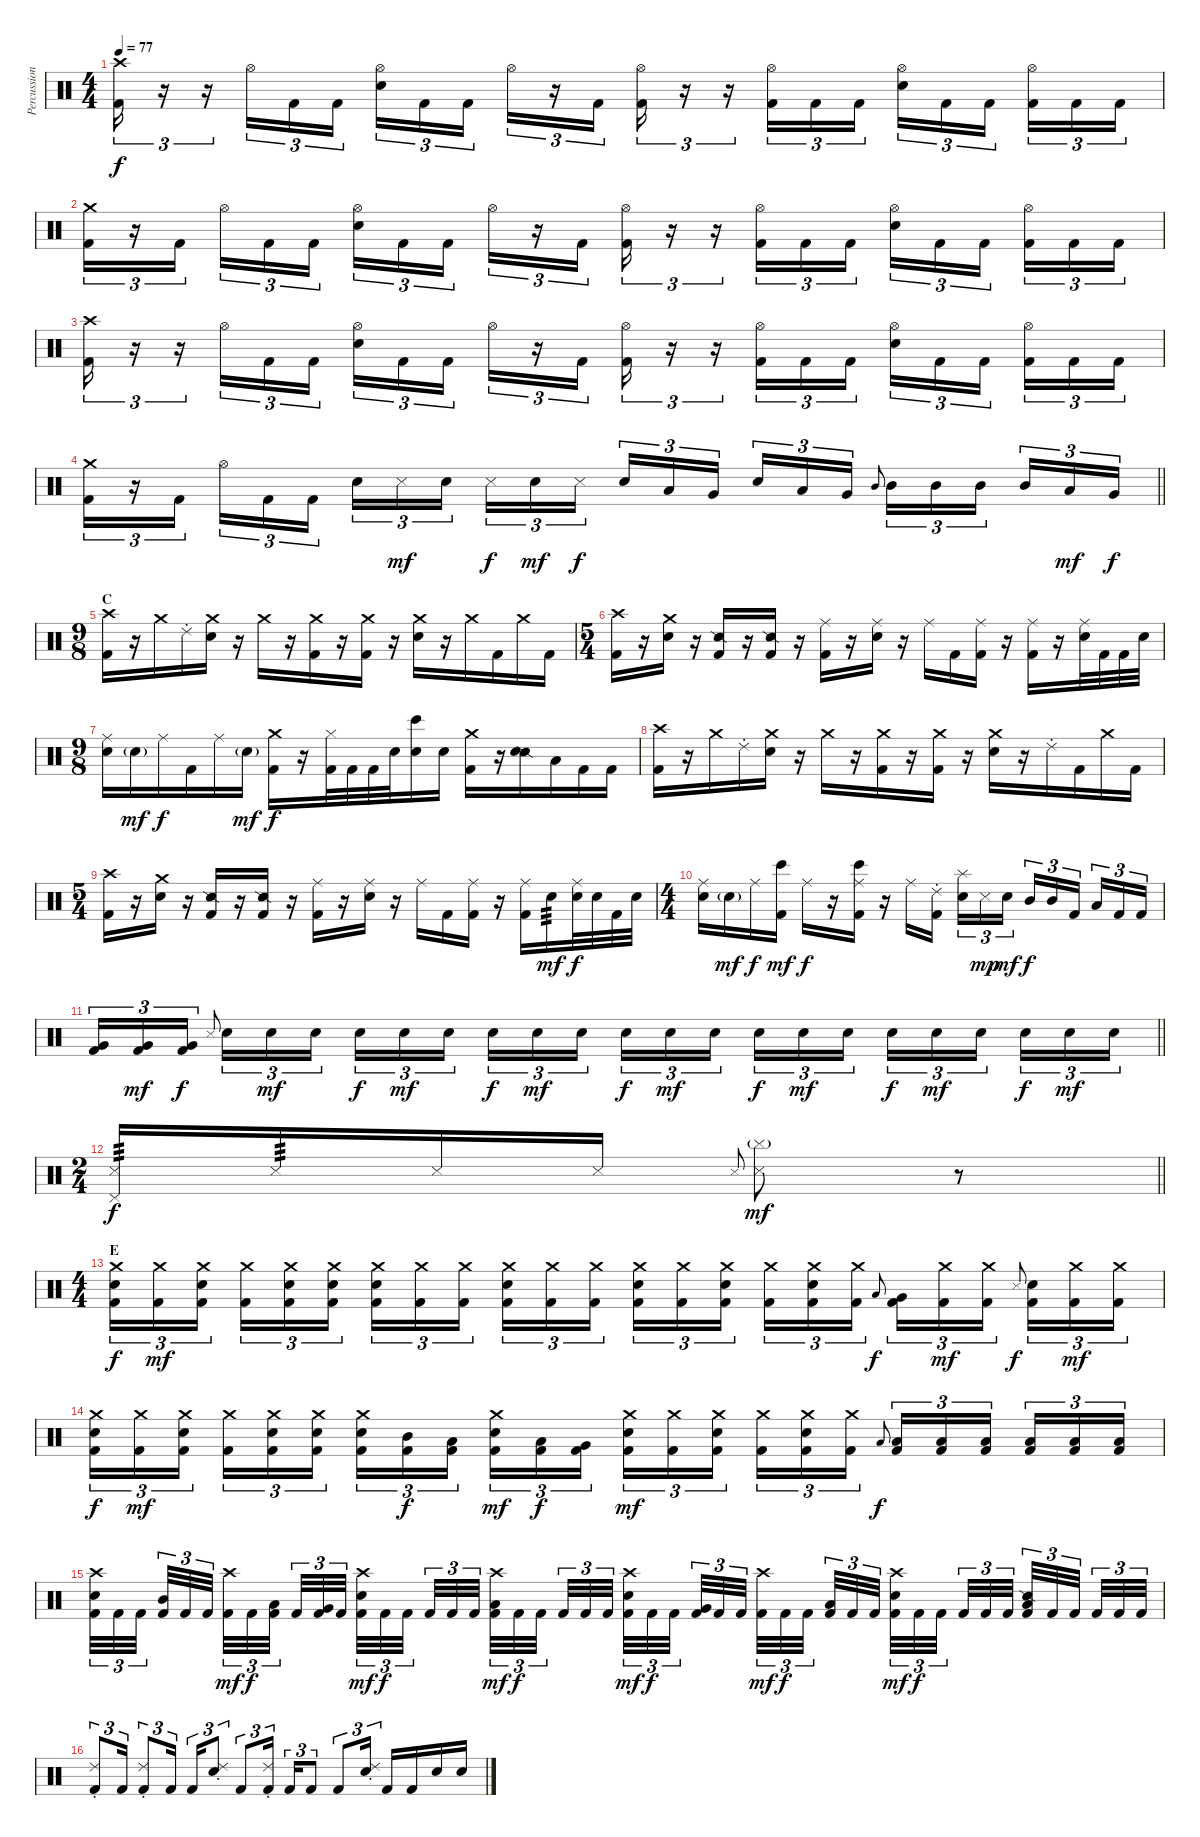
\track ("Percussion" "Percussion") {instrument percussion}
\staff {score}
\articulation defaults
\ts (4 4)
\tempo 77
\clef neutral
\ks c
("Crash high (hit)" "Kick (hit) 2").16{tu (3 2) dy f} r.16{tu (3 2)} r.16{tu (3 2)} "Hi-Hat (open)".16{tu (3 2)} "Kick (hit) 2".16{tu (3 2)} "Kick (hit) 2".16{tu (3 2)} ("Hi-Hat (open)" "Snare (hit) 2").16{tu (3 2)} "Kick (hit) 2".16{tu (3 2)} "Kick (hit) 2".16{tu (3 2) beam splitsecondary} "Hi-Hat (open)".16{tu (3 2)} r.16{tu (3 2)} "Kick (hit) 2".16{tu (3 2)} ("Hi-Hat (open)" "Kick (hit) 2").16{tu (3 2)} r.16{tu (3 2)} r.16{tu (3 2)} ("Hi-Hat (open)" "Kick (hit) 2").16{tu (3 2)} "Kick (hit) 2".16{tu (3 2)} "Kick (hit) 2".16{tu (3 2)} ("Hi-Hat (open)" "Snare (hit) 2").16{tu (3 2)} "Kick (hit) 2".16{tu (3 2)} "Kick (hit) 2".16{tu (3 2) beam splitsecondary} ("Hi-Hat (open)" "Kick (hit) 2").16{tu (3 2)} "Kick (hit) 2".16{tu (3 2)} "Kick (hit) 2".16{tu (3 2)} |
("Crash medium (hit)" "Kick (hit) 2").16{tu (3 2)} r.16{tu (3 2)} "Kick (hit) 2".16{tu (3 2) beam splitsecondary} "Hi-Hat (open)".16{tu (3 2)} "Kick (hit) 2".16{tu (3 2)} "Kick (hit) 2".16{tu (3 2)} ("Hi-Hat (open)" "Snare (hit) 2").16{tu (3 2)} "Kick (hit) 2".16{tu (3 2)} "Kick (hit) 2".16{tu (3 2) beam splitsecondary} "Hi-Hat (open)".16{tu (3 2)} r.16{tu (3 2)} "Kick (hit) 2".16{tu (3 2)} ("Hi-Hat (open)" "Kick (hit) 2").16{tu (3 2)} r.16{tu (3 2)} r.16{tu (3 2)} ("Hi-Hat (open)" "Kick (hit) 2").16{tu (3 2)} "Kick (hit) 2".16{tu (3 2)} "Kick (hit) 2".16{tu (3 2)} ("Hi-Hat (open)" "Snare (hit) 2").16{tu (3 2)} "Kick (hit) 2".16{tu (3 2)} "Kick (hit) 2".16{tu (3 2) beam splitsecondary} ("Hi-Hat (open)" "Kick (hit) 2").16{tu (3 2)} "Kick (hit) 2".16{tu (3 2)} "Kick (hit) 2".16{tu (3 2)} |
("Crash high (hit)" "Kick (hit) 2").16{tu (3 2)} r.16{tu (3 2)} r.16{tu (3 2)} "Hi-Hat (open)".16{tu (3 2)} "Kick (hit) 2".16{tu (3 2)} "Kick (hit) 2".16{tu (3 2)} ("Hi-Hat (open)" "Snare (hit) 2").16{tu (3 2)} "Kick (hit) 2".16{tu (3 2)} "Kick (hit) 2".16{tu (3 2) beam splitsecondary} "Hi-Hat (open)".16{tu (3 2)} r.16{tu (3 2)} "Kick (hit) 2".16{tu (3 2)} ("Hi-Hat (open)" "Kick (hit) 2").16{tu (3 2)} r.16{tu (3 2)} r.16{tu (3 2)} ("Hi-Hat (open)" "Kick (hit) 2").16{tu (3 2)} "Kick (hit) 2".16{tu (3 2)} "Kick (hit) 2".16{tu (3 2)} ("Hi-Hat (open)" "Snare (hit) 2").16{tu (3 2)} "Kick (hit) 2".16{tu (3 2)} "Kick (hit) 2".16{tu (3 2) beam splitsecondary} ("Hi-Hat (open)" "Kick (hit) 2").16{tu (3 2)} "Kick (hit) 2".16{tu (3 2)} "Kick (hit) 2".16{tu (3 2)} |
\barLineRight lightlight
("Crash medium (hit)" "Kick (hit) 2").16{tu (3 2)} r.16{tu (3 2)} "Kick (hit) 2".16{tu (3 2) beam splitsecondary} "Hi-Hat (open)".16{tu (3 2)} "Kick (hit) 2".16{tu (3 2)} "Kick (hit) 2".16{tu (3 2)} "Snare (hit) 2".16{tu (3 2)} "Metronome (hit)".16{tu (3 2) dy mf} "Snare (hit) 2".16{tu (3 2) beam splitsecondary} "Metronome (hit)".16{tu (3 2) dy f} "Snare (hit) 2".16{tu (3 2) dy mf} "Metronome (hit)".16{tu (3 2) dy f} "Snare (hit) 2".16{tu (3 2)} "Low Tom (hit)".16{tu (3 2)} "Very Low Tom (hit)".16{tu (3 2) beam splitsecondary} "Snare (hit) 2".16{tu (3 2)} "Low Tom (hit)".16{tu (3 2)} "Very Low Tom (hit)".16{tu (3 2)} "Mid Tom (hit)".8{gr onbeat} "Mid Tom (hit)".16{tu (3 2)} "Mid Tom (hit)".16{tu (3 2)} "Mid Tom (hit)".16{tu (3 2) beam splitsecondary} "Mid Tom (hit)".16{tu (3 2)} "Low Tom (hit)".16{tu (3 2) dy mf} "Very Low Tom (hit)".16{tu (3 2) dy f} |
\ts (9 8)
\section ("" "C")
("Crash high (hit)" "Kick (hit) 2").16 r.16 "Crash medium (hit)".16 "Ride (choke) 2".16 ("Crash medium (hit)" "Snare (hit) 2").16 r.16 "Crash medium (hit)".16 r.16 ("Crash medium (hit)" "Kick (hit) 2").16 r.16 ("Crash medium (hit)" "Kick (hit) 2").16 r.16 ("Crash medium (hit)" "Snare (hit) 2").16 r.16 "Crash medium (hit)".16 "Kick (hit) 2".16 "Crash medium (hit)".16 "Kick (hit) 2".16 |
\ts (5 4)
("Crash high (hit)" "Kick (hit) 2").16 r.16 ("Crash medium (hit)" "Snare (hit) 2").16 r.16 ("Snare (side stick) 2" "Kick (hit) 2").16 r.16 ("Snare (side stick) 2" "Kick (hit) 2").16 r.16 ("Ride (middle)" "Kick (hit) 2").16 r.16 ("Ride (middle)" "Snare (hit) 2").16 r.16 "Ride (middle)".16 "Kick (hit) 2".16 ("Ride (middle)" "Kick (hit) 2").16 r.16 ("Ride (middle)" "Kick (hit) 2").16 r.16 ("Ride (middle)" "Snare (hit) 2").32 "Kick (hit) 2".32 "Kick (hit) 2".32 "Snare (hit) 2".32 |
\ts (9 8)
("Ride (middle)" "Snare (hit) 2").16 "Snare (hit) 2"{g}.16{dy mf} "Ride (middle)".16{dy f} "Kick (hit) 2".16 "Ride (middle)".16 "Snare (hit) 2"{g}.16{dy mf} ("Crash medium (hit)" "Kick (hit) 2").16{dy f} r.16 ("Hi-Hat (closed)" "Kick (hit) 2").32 "Kick (hit) 2".32 "Kick (hit) 2".32 "Snare (hit) 2".32 ("Bongo High (hit)" "Snare (hit) 2").16 "Snare (hit) 2".16 ("Crash medium (hit)" "Kick (hit) 2").16 r.16 ("Snare (side stick) 2" "Snare (hit) 2").16 "Low Tom (hit)".16 "Kick (hit) 2".16 "Kick (hit) 2".16 |
("Crash high (hit)" "Kick (hit) 2").16 r.16 "Crash medium (hit)".16 "Ride (choke) 2".16 ("Crash medium (hit)" "Snare (hit) 2").16 r.16 "Crash medium (hit)".16 r.16 ("Crash medium (hit)" "Kick (hit) 2").16 r.16 ("Crash medium (hit)" "Kick (hit) 2").16 r.16 ("Crash medium (hit)" "Snare (hit) 2").16 r.16 "Ride (choke) 2".16 "Kick (hit) 2".16 "Crash medium (hit)".16 "Kick (hit) 2".16 |
\ts (5 4)
("Crash high (hit)" "Kick (hit) 2").16 r.16 ("Crash medium (hit)" "Snare (hit) 2").16 r.16 ("Snare (side stick) 2" "Kick (hit) 2").16 r.16 ("Snare (side stick) 2" "Kick (hit) 2").16 r.16 ("Ride (middle)" "Kick (hit) 2").16 r.16 ("Ride (middle)" "Snare (hit) 2").16 r.16 "Ride (middle)".16 "Kick (hit) 2".16 ("Ride (middle)" "Kick (hit) 2").16 r.16 ("Ride (middle)" "Kick (hit) 2").16 "Snare (hit) 2".16{tp 3 dy mf} ("Ride (middle)" "Snare (hit) 2").32{dy f} "Snare (hit) 2".32 "Kick (hit) 2".32 "Snare (hit) 2".32 |
\ts (4 4)
("Ride (middle)" "Snare (hit) 2").16 "Snare (hit) 2"{g}.16{dy mf} "Ride (middle)".16{dy f} ("Bongo High (hit)" "Kick (hit) 2").16{dy mf} "Ride (middle)".16{dy f} r.16 ("Ride (middle)" "Bongo High (hit)" "Kick (hit) 2").16 r.16 "Ride (middle)".16 ("Ride (choke) 2" "Kick (hit) 2").16{beam splitsecondary} ("Splash (hit)" "Snare (hit) 2").16{tu (3 2)} "Metronome (hit)".16{tu (3 2) dy mp} "Snare (hit) 2".16{tu (3 2) dy mf} "Mid Tom (hit)".16{tu (3 2) dy f} "Mid Tom (hit)".16{tu (3 2)} "Kick (hit) 2".16{tu (3 2) beam splitsecondary} "Low Tom (hit)".16{tu (3 2)} "Kick (hit) 2".16{tu (3 2)} "Kick (hit) 2".16{tu (3 2)} |
\barLineRight lightlight
("Very Low Tom (hit)" "Kick (hit) 2").16{tu (3 2)} ("Very Low Tom (hit)" "Kick (hit) 2").16{tu (3 2) dy mf} ("Very Low Tom (hit)" "Kick (hit) 2").16{tu (3 2) dy f} "Metronome (hit)".8{gr onbeat beam splitsecondary} "Snare (hit) 2".16{tu (3 2)} "Electric Snare (hit)".16{tu (3 2) dy mf} "Electric Snare (hit)".16{tu (3 2)} "Electric Snare (hit)".16{tu (3 2) dy f} "Electric Snare (hit)".16{tu (3 2) dy mf} "Electric Snare (hit)".16{tu (3 2) beam splitsecondary} "Electric Snare (hit)".16{tu (3 2) dy f} "Electric Snare (hit)".16{tu (3 2) dy mf} "Electric Snare (hit)".16{tu (3 2)} "Electric Snare (hit)".16{tu (3 2) dy f} "Electric Snare (hit)".16{tu (3 2) dy mf} "Electric Snare (hit)".16{tu (3 2) beam splitsecondary} "Electric Snare (hit)".16{tu (3 2) dy f} "Electric Snare (hit)".16{tu (3 2) dy mf} "Electric Snare (hit)".16{tu (3 2)} "Electric Snare (hit)".16{tu (3 2) dy f} "Electric Snare (hit)".16{tu (3 2) dy mf} "Electric Snare (hit)".16{tu (3 2) beam splitsecondary} "Electric Snare (hit)".16{tu (3 2) dy f} "Electric Snare (hit)".16{tu (3 2) dy mf} "Electric Snare (hit)".16{tu (3 2)} |
\ts (2 4)
\barLineRight lightlight
("Pedal Hi-Hat (hit)" "Snare (side stick) 3").16{tp 3 dy f} "Snare (side stick) 3".16{tp 3} "Snare (side stick) 3".16 "Snare (side stick) 3".16 "Snare (side stick) 3".8{gr onbeat} ("Cymbal (hit)"{g} "Snare (side stick) 3").8{dy mf} r.8 |
\ts (4 4)
\section ("" "E")
("Crash medium (hit)" "Snare (hit) 2" "Kick (hit) 2").16{tu (3 2) dy f} ("Crash medium (hit)" "Kick (hit) 2").16{tu (3 2) dy mf} ("Crash medium (hit)" "Snare (hit) 2" "Kick (hit) 2").16{tu (3 2) beam splitsecondary} ("Crash medium (hit)" "Kick (hit) 2").16{tu (3 2)} ("Crash medium (hit)" "Snare (hit) 2" "Kick (hit) 2").16{tu (3 2)} ("Crash medium (hit)" "Snare (hit) 2" "Kick (hit) 2").16{tu (3 2)} ("Crash medium (hit)" "Snare (hit) 2" "Kick (hit) 2").16{tu (3 2)} ("Crash medium (hit)" "Kick (hit) 2").16{tu (3 2)} ("Crash medium (hit)" "Kick (hit) 2").16{tu (3 2) beam splitsecondary} ("Crash medium (hit)" "Snare (hit) 2" "Kick (hit) 2").16{tu (3 2)} ("Crash medium (hit)" "Kick (hit) 2").16{tu (3 2)} ("Crash medium (hit)" "Kick (hit) 2").16{tu (3 2)} ("Crash medium (hit)" "Snare (hit) 2" "Kick (hit) 2").16{tu (3 2)} ("Crash medium (hit)" "Kick (hit) 2").16{tu (3 2)} ("Crash medium (hit)" "Snare (hit) 2" "Kick (hit) 2").16{tu (3 2) beam splitsecondary} ("Crash medium (hit)" "Kick (hit) 2").16{tu (3 2)} ("Crash medium (hit)" "Snare (hit) 2" "Kick (hit) 2").16{tu (3 2)} ("Crash medium (hit)" "Kick (hit) 2").16{tu (3 2)} "Low Tom (hit)".8{gr onbeat dy f} ("Very Low Tom (hit)" "Kick (hit) 2").16{tu (3 2)} ("Crash medium (hit)" "Kick (hit) 2").16{tu (3 2) dy mf} ("Crash medium (hit)" "Kick (hit) 2").16{tu (3 2)} "Metronome (hit)".8{gr onbeat dy f beam splitsecondary} ("Snare (hit) 2" "Kick (hit) 2").16{tu (3 2)} ("Crash medium (hit)" "Kick (hit) 2").16{tu (3 2) dy mf} ("Crash medium (hit)" "Kick (hit) 2").16{tu (3 2)} |
("Crash medium (hit)" "Snare (hit) 2" "Kick (hit) 2").16{tu (3 2) dy f} ("Crash medium (hit)" "Kick (hit) 2").16{tu (3 2) dy mf} ("Crash medium (hit)" "Snare (hit) 2" "Kick (hit) 2").16{tu (3 2) beam splitsecondary} ("Crash medium (hit)" "Kick (hit) 2").16{tu (3 2)} ("Crash medium (hit)" "Snare (hit) 2" "Kick (hit) 2").16{tu (3 2)} ("Crash medium (hit)" "Snare (hit) 2" "Kick (hit) 2").16{tu (3 2)} ("Crash medium (hit)" "Snare (hit) 2" "Kick (hit) 2").16{tu (3 2)} ("Mid Tom (hit)" "Kick (hit) 2").16{tu (3 2) dy f} ("Low Tom (hit)" "Kick (hit) 2").16{tu (3 2) beam splitsecondary} ("Crash medium (hit)" "Snare (hit) 2" "Kick (hit) 2").16{tu (3 2) dy mf} ("Low Tom (hit)" "Kick (hit) 2").16{tu (3 2) dy f} ("Very Low Tom (hit)" "Kick (hit) 2").16{tu (3 2)} ("Crash medium (hit)" "Snare (hit) 2" "Kick (hit) 2").16{tu (3 2) dy mf} ("Crash medium (hit)" "Kick (hit) 2").16{tu (3 2)} ("Crash medium (hit)" "Snare (hit) 2" "Kick (hit) 2").16{tu (3 2) beam splitsecondary} ("Crash medium (hit)" "Kick (hit) 2").16{tu (3 2)} ("Crash medium (hit)" "Snare (hit) 2" "Kick (hit) 2").16{tu (3 2)} ("Crash medium (hit)" "Kick (hit) 2").16{tu (3 2)} "Low Tom (hit)".8{gr onbeat dy f} ("Low Tom (hit)" "Kick (hit) 2").16{tu (3 2)} ("Low Tom (hit)" "Kick (hit) 2").16{tu (3 2)} ("Low Tom (hit)" "Kick (hit) 2").16{tu (3 2) beam splitsecondary} ("Low Tom (hit)" "Kick (hit) 2").16{tu (3 2)} ("Low Tom (hit)" "Kick (hit) 2").16{tu (3 2)} ("Low Tom (hit)" "Kick (hit) 2").16{tu (3 2)} |
("Crash high (hit)" "Snare (hit) 2" "Kick (hit) 2").32{tu (3 2)} "Kick (hit) 2".32{tu (3 2)} "Kick (hit) 2".32{tu (3 2) beam splitsecondary} ("Mid Tom (hit)" "Kick (hit) 2").32{tu (3 2)} "Kick (hit) 2".32{tu (3 2)} "Kick (hit) 2".32{tu (3 2) beam splitsecondary} ("Crash high (hit)" "Kick (hit) 2").32{tu (3 2) dy mf} "Kick (hit) 2".32{tu (3 2) dy f} ("Low Tom (hit)" "Kick (hit) 2").32{tu (3 2) beam splitsecondary} "Kick (hit) 2".32{tu (3 2)} ("Very Low Tom (hit)" "Kick (hit) 2").32{tu (3 2)} "Kick (hit) 2".32{tu (3 2)} ("Crash high (hit)" "Snare (hit) 2" "Kick (hit) 2").32{tu (3 2) dy mf} "Kick (hit) 2".32{tu (3 2) dy f} "Kick (hit) 2".32{tu (3 2) beam splitsecondary} "Kick (hit) 2".32{tu (3 2)} "Kick (hit) 2".32{tu (3 2)} "Kick (hit) 2".32{tu (3 2) beam splitsecondary} ("Crash high (hit)" "Low Tom (hit)" "Kick (hit) 2").32{tu (3 2) dy mf} "Kick (hit) 2".32{tu (3 2) dy f} "Kick (hit) 2".32{tu (3 2) beam splitsecondary} "Kick (hit) 2".32{tu (3 2)} "Kick (hit) 2".32{tu (3 2)} "Kick (hit) 2".32{tu (3 2)} ("Crash high (hit)" "Snare (hit) 2" "Kick (hit) 2").32{tu (3 2) dy mf} "Kick (hit) 2".32{tu (3 2) dy f} "Kick (hit) 2".32{tu (3 2) beam splitsecondary} ("Very Low Tom (hit)" "Kick (hit) 2").32{tu (3 2)} "Kick (hit) 2".32{tu (3 2)} "Kick (hit) 2".32{tu (3 2) beam splitsecondary} ("Crash high (hit)" "Kick (hit) 2").32{tu (3 2) dy mf} "Kick (hit) 2".32{tu (3 2) dy f} "Kick (hit) 2".32{tu (3 2) beam splitsecondary} ("Low Tom (hit)" "Kick (hit) 2").32{tu (3 2)} "Kick (hit) 2".32{tu (3 2)} "Kick (hit) 2".32{tu (3 2)} ("Crash high (hit)" "Snare (hit) 2" "Kick (hit) 2").32{tu (3 2) dy mf} "Kick (hit) 2".32{tu (3 2) dy f} "Kick (hit) 2".32{tu (3 2) beam splitsecondary} "Kick (hit) 2".32{tu (3 2)} "Kick (hit) 2".32{tu (3 2)} "Kick (hit) 2".32{tu (3 2) beam splitsecondary} ("Snare (side stick) 2" "Low Floor Tom (hit)" "Kick (hit) 2").32{tu (3 2)} "Kick (hit) 2".32{tu (3 2)} "Kick (hit) 2".32{tu (3 2) beam splitsecondary} "Kick (hit) 2".32{tu (3 2)} "Kick (hit) 2".32{tu (3 2)} "Kick (hit) 2".32{tu (3 2)} |
("Ride (choke) 2" "Kick (hit) 2").8{tu (3 2)} "Kick (hit) 2".16{tu (3 2)} ("Ride (choke) 2" "Kick (hit) 2").8{tu (3 2)} "Kick (hit) 2".16{tu (3 2)} "Kick (hit) 2".16{tu (3 2)} ("Ride (choke) 2" "Snare (hit) 2").8{tu (3 2)} "Kick (hit) 2".8{tu (3 2)} ("Ride (choke) 2" "Kick (hit) 2").16{tu (3 2)} "Kick (hit) 2".16{tu (3 2)} "Kick (hit) 2".8{tu (3 2)} "Kick (hit) 2".8{tu (3 2)} ("Ride (choke) 2" "Snare (hit) 2").16{tu (3 2)} "Kick (hit) 2".16 "Kick (hit) 2".16 "Snare (hit) 2".16 "Snare (hit) 2".16
